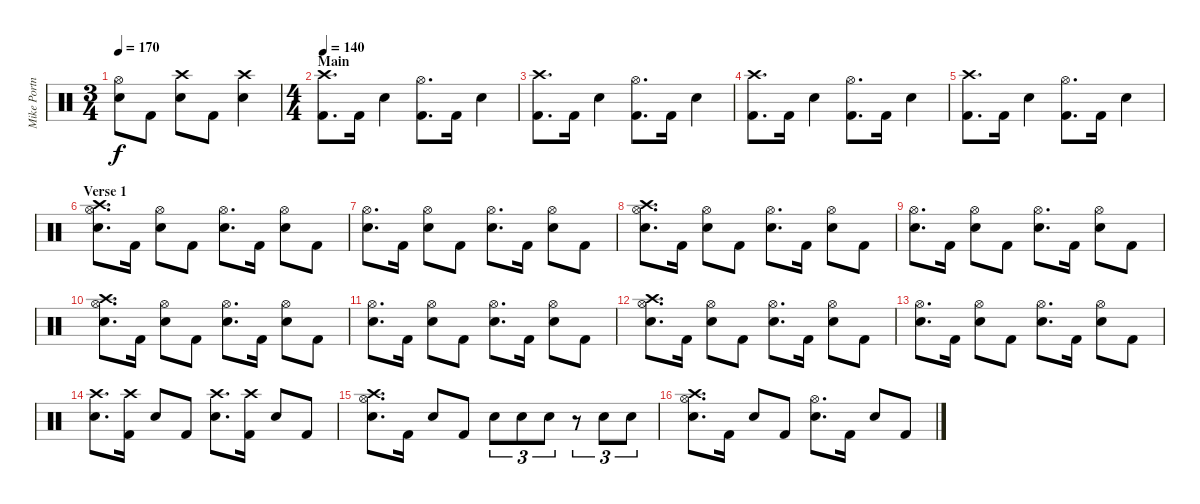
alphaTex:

\track ("Mike Portnoy Drums/Percussion" "Mike Portn") {instrument percussion}
\staff {score}
\articulation defaults
\ts (3 4)
\tempo 170
\clef neutral
\ks c
("Hi-Hat (open)" "Snare (hit) 2").8{dy f} "Kick (hit) 2".8 ("Crash high (hit)" "Snare (hit) 2").8 "Kick (hit) 2".8 ("Crash high (hit)" "Snare (hit) 2").4 |
\ts (4 4)
\section ("" "Main")
\tempo 140
("Kick (hit) 2" "Crash high (hit)").8{d} "Kick (hit) 2".16 "Snare (hit) 2".4 ("Kick (hit) 2" "Hi-Hat (open)").8{d} "Kick (hit) 2".16 "Snare (hit) 2".4 |
("Kick (hit) 2" "Crash high (hit)").8{d} "Kick (hit) 2".16 "Snare (hit) 2".4 ("Kick (hit) 2" "Hi-Hat (open)").8{d} "Kick (hit) 2".16 "Snare (hit) 2".4 |
("Kick (hit) 2" "Crash high (hit)").8{d} "Kick (hit) 2".16 "Snare (hit) 2".4 ("Kick (hit) 2" "Hi-Hat (open)").8{d} "Kick (hit) 2".16 "Snare (hit) 2".4 |
("Kick (hit) 2" "Crash high (hit)").8{d} "Kick (hit) 2".16 "Snare (hit) 2".4 ("Kick (hit) 2" "Hi-Hat (open)").8{d} "Kick (hit) 2".16 "Snare (hit) 2".4 |
\section ("" "Verse 1")
("Snare (hit) 2" "Crash high (hit)" "Hi-Hat (open)").8{d} "Kick (hit) 2".16 ("Snare (hit) 2" "Hi-Hat (open)").8 "Kick (hit) 2".8 ("Snare (hit) 2" "Hi-Hat (open)").8{d} "Kick (hit) 2".16 ("Snare (hit) 2" "Hi-Hat (open)").8 "Kick (hit) 2".8 |
("Snare (hit) 2" "Hi-Hat (open)").8{d} "Kick (hit) 2".16 ("Snare (hit) 2" "Hi-Hat (open)").8 "Kick (hit) 2".8 ("Snare (hit) 2" "Hi-Hat (open)").8{d} "Kick (hit) 2".16 ("Snare (hit) 2" "Hi-Hat (open)").8 "Kick (hit) 2".8 |
("Snare (hit) 2" "Crash high (hit)" "Hi-Hat (open)").8{d} "Kick (hit) 2".16 ("Snare (hit) 2" "Hi-Hat (open)").8 "Kick (hit) 2".8 ("Snare (hit) 2" "Hi-Hat (open)").8{d} "Kick (hit) 2".16 ("Snare (hit) 2" "Hi-Hat (open)").8 "Kick (hit) 2".8 |
("Snare (hit) 2" "Hi-Hat (open)").8{d} "Kick (hit) 2".16 ("Snare (hit) 2" "Hi-Hat (open)").8 "Kick (hit) 2".8 ("Snare (hit) 2" "Hi-Hat (open)").8{d} "Kick (hit) 2".16 ("Snare (hit) 2" "Hi-Hat (open)").8 "Kick (hit) 2".8 |
("Snare (hit) 2" "Crash high (hit)" "Hi-Hat (open)").8{d} "Kick (hit) 2".16 ("Snare (hit) 2" "Hi-Hat (open)").8 "Kick (hit) 2".8 ("Snare (hit) 2" "Hi-Hat (open)").8{d} "Kick (hit) 2".16 ("Snare (hit) 2" "Hi-Hat (open)").8 "Kick (hit) 2".8 |
("Snare (hit) 2" "Hi-Hat (open)").8{d} "Kick (hit) 2".16 ("Snare (hit) 2" "Hi-Hat (open)").8 "Kick (hit) 2".8 ("Snare (hit) 2" "Hi-Hat (open)").8{d} "Kick (hit) 2".16 ("Snare (hit) 2" "Hi-Hat (open)").8 "Kick (hit) 2".8 |
("Snare (hit) 2" "Crash high (hit)" "Hi-Hat (open)").8{d} "Kick (hit) 2".16 ("Snare (hit) 2" "Hi-Hat (open)").8 "Kick (hit) 2".8 ("Snare (hit) 2" "Hi-Hat (open)").8{d} "Kick (hit) 2".16 ("Snare (hit) 2" "Hi-Hat (open)").8 "Kick (hit) 2".8 |
("Snare (hit) 2" "Hi-Hat (open)").8{d} "Kick (hit) 2".16 ("Snare (hit) 2" "Hi-Hat (open)").8 "Kick (hit) 2".8 ("Snare (hit) 2" "Hi-Hat (open)").8{d} "Kick (hit) 2".16 ("Snare (hit) 2" "Hi-Hat (open)").8 "Kick (hit) 2".8 |
("Snare (hit) 2" "Crash high (hit)").8{d} ("Kick (hit) 2" "Crash high (hit)").16 "Snare (hit) 2".8 "Kick (hit) 2".8 ("Snare (hit) 2" "Crash high (hit)").8{d} ("Kick (hit) 2" "Crash high (hit)").16 "Snare (hit) 2".8 "Kick (hit) 2".8 |
("Snare (hit) 2" "Crash high (hit)" "Hi-Hat (open)").8{d} "Kick (hit) 2".16 "Snare (hit) 2".8 "Kick (hit) 2".8 "Snare (hit) 2".8{tu (3 2)} "Snare (hit) 2".8{tu (3 2)} "Snare (hit) 2".8{tu (3 2)} r.8{tu (3 2)} "Snare (hit) 2".8{tu (3 2)} "Snare (hit) 2".8{tu (3 2)} |
("Snare (hit) 2" "Crash high (hit)" "Hi-Hat (open)").8{d} "Kick (hit) 2".16 "Snare (hit) 2".8 "Kick (hit) 2".8 ("Snare (hit) 2" "Hi-Hat (open)").8{d} "Kick (hit) 2".16 "Snare (hit) 2".8 "Kick (hit) 2".8
